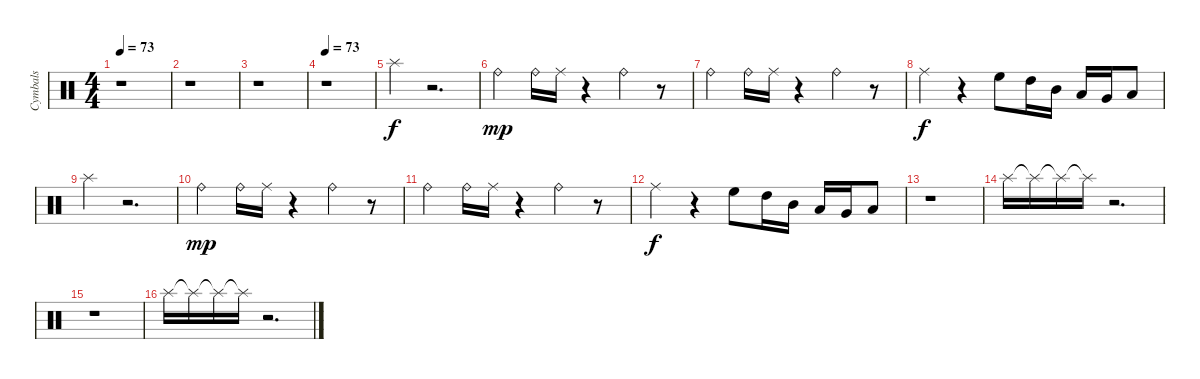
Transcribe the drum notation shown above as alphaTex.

\track ("Cymbals" "Cymbals") {instrument percussion}
\staff {score}
\articulation defaults
\ts (4 4)
\tempo 73
\clef neutral
\ks c
r.1{dy f} |
r.1 |
r.1 |
\tempo 73
r.1 |
"Splash (hit)".4 r.2{d} |
"Ride (bell)".4{dy mp} "Ride (bell)".16 "Ride (middle)".16 r.4 "Ride (bell)".4 r.8 |
"Ride (bell)".4 "Ride (bell)".16 "Ride (middle)".16 r.4 "Ride (bell)".4 r.8 |
"Ride (middle)".4{dy f} r.4 "High Floor Tom (hit)".8 "High Tom (hit)".16 "Mid Tom (hit)".16 "Low Tom (hit)".16 "Very Low Tom (hit)".16 "Low Floor Tom (hit)".8 |
"Splash (hit)".4 r.2{d} |
"Ride (bell)".4{dy mp} "Ride (bell)".16 "Ride (middle)".16 r.4 "Ride (bell)".4 r.8 |
"Ride (bell)".4 "Ride (bell)".16 "Ride (middle)".16 r.4 "Ride (bell)".4 r.8 |
"Ride (middle)".4{dy f} r.4 "High Floor Tom (hit)".8 "High Tom (hit)".16 "Mid Tom (hit)".16 "Low Tom (hit)".16 "Very Low Tom (hit)".16 "Low Floor Tom (hit)".8 |
r.1 |
"Splash (hit)".16 "Splash (hit)"{t}.16 "Splash (hit)"{t}.16 "Splash (hit)"{t}.16 r.2{d} |
r.1 |
"Splash (hit)".16 "Splash (hit)"{t}.16 "Splash (hit)"{t}.16 "Splash (hit)"{t}.16 r.2{d}
